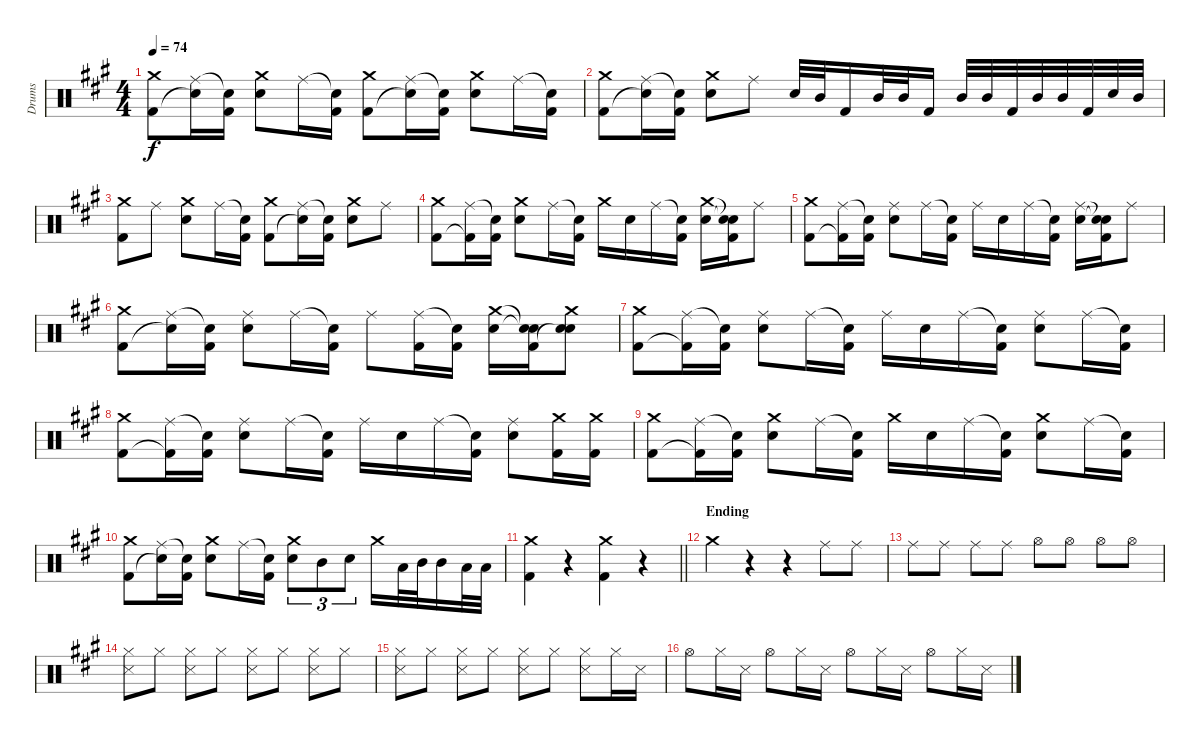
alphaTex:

\track ("Drums" "Drums") {instrument percussion}
\staff {score}
\articulation defaults
\ts (4 4)
\tempo 74
\clef neutral
\ks a
("Crash medium (hit)" "Kick (hit) 2").8{dy f} ("Ride (middle)" "Snare (hit)"{t}).16 ("Snare (hit)"{t} "Kick (hit) 2").16 ("Crash medium (hit)" "Electric Snare (hit)").8 "Ride (middle)".16 ("Snare (hit)"{t} "Kick (hit) 2").16 ("Crash medium (hit)" "Kick (hit) 2").8 ("Ride (middle)" "Snare (hit)"{t}).16 ("Snare (hit)"{t} "Kick (hit) 2").16 ("Crash medium (hit)" "Electric Snare (hit)").8 "Ride (middle)".16 ("Snare (hit)"{t} "Kick (hit) 2").16 |
("Crash medium (hit)" "Kick (hit) 2").8 ("Ride (middle)" "Snare (hit)"{t}).16 ("Snare (hit)"{t} "Kick (hit) 2").16 ("Crash medium (hit)" "Electric Snare (hit)").8 "Ride (middle)".8 "Electric Snare (hit)".32 "Mid Tom (hit)".32 "Kick (hit) 2".16 "Mid Tom (hit)".32 "Mid Tom (hit)".32 "Kick (hit) 2".16 "Mid Tom (hit)".32 "Mid Tom (hit)".32 "Kick (hit) 2".32 "Mid Tom (hit)".32 "Mid Tom (hit)".32 "Kick (hit) 2".32 "Electric Snare (hit)".32 "Mid Tom (hit)".32 |
("Crash medium (hit)" "Kick (hit) 2").8 "Ride (middle)".8 ("Crash medium (hit)" "Electric Snare (hit)").8 "Ride (middle)".16 ("Snare (hit)"{t} "Kick (hit) 2").16 ("Crash medium (hit)" "Kick (hit) 2").8 ("Ride (middle)" "Snare (hit)"{t}).16 ("Snare (hit)"{t} "Kick (hit) 2").16 ("Crash medium (hit)" "Electric Snare (hit)").8 "Ride (middle)".8 |
("Crash medium (hit)" "Kick (hit) 2").8 ("Ride (middle)" "Kick (hit) 2"{t}).16 ("Snare (hit)"{t} "Kick (hit) 2").16 ("Crash medium (hit)" "Electric Snare (hit)").8 "Ride (middle)".16 ("Snare (hit)"{t} "Kick (hit) 2").16 "Crash medium (hit)".16 "Electric Snare (hit)".16 "Ride (middle)".16 ("Snare (hit)"{t} "Kick (hit) 2").16 ("Crash medium (hit)" "Electric Snare (hit)").16 ("Snare (hit)"{t} "Snare (hit)"{t} "Kick (hit) 2").16 "Ride (middle)".8 |
("Crash medium (hit)" "Kick (hit) 2").8 ("Ride (middle)" "Kick (hit) 2"{t}).16 ("Snare (hit)"{t} "Kick (hit) 2").16 ("Ride (middle)" "Electric Snare (hit)").8 "Ride (middle)".16 ("Snare (hit)"{t} "Kick (hit) 2").16 "Ride (middle)".16 "Electric Snare (hit)".16 "Ride (middle)".16 ("Snare (hit)"{t} "Kick (hit) 2").16 ("Ride (middle)" "Electric Snare (hit)").16 ("Snare (hit)"{t} "Snare (hit)"{t} "Kick (hit) 2").16 "Ride (middle)".8 |
("Crash medium (hit)" "Kick (hit) 2").8 ("Ride (middle)" "Snare (hit)"{t}).16 ("Snare (hit)"{t} "Kick (hit) 2").16 ("Ride (middle)" "Electric Snare (hit)").8 "Ride (middle)".16 ("Snare (hit)"{t} "Kick (hit) 2").16 "Ride (middle)".8 ("Ride (middle)" "Kick (hit) 2").16 ("Snare (hit)"{t} "Kick (hit) 2").16 ("Crash medium (hit)" "Electric Snare (hit)").16 ("Snare (hit)"{t} "Snare (hit)"{t} "Kick (hit) 2").16 ("Crash medium (hit)" "Electric Snare (hit)" "Snare (hit)"{t}).8 |
("Crash medium (hit)" "Kick (hit) 2").8 ("Ride (middle)" "Kick (hit) 2"{t}).16 ("Snare (hit)"{t} "Kick (hit) 2").16 ("Ride (middle)" "Electric Snare (hit)").8 "Ride (middle)".16 ("Snare (hit)"{t} "Kick (hit) 2").16 "Ride (middle)".16 "Electric Snare (hit)".16 "Ride (middle)".16 ("Snare (hit)"{t} "Kick (hit) 2").16 ("Ride (middle)" "Electric Snare (hit)").8 "Ride (middle)".16 ("Snare (hit)"{t} "Kick (hit) 2").16 |
("Crash medium (hit)" "Kick (hit) 2").8 ("Ride (middle)" "Kick (hit) 2"{t}).16 ("Snare (hit)"{t} "Kick (hit) 2").16 ("Ride (middle)" "Electric Snare (hit)").8 "Ride (middle)".16 ("Snare (hit)"{t} "Kick (hit) 2").16 "Ride (middle)".16 "Electric Snare (hit)".16 "Ride (middle)".16 ("Snare (hit)"{t} "Kick (hit) 2").16 ("Ride (middle)" "Electric Snare (hit)").8 ("Crash medium (hit)" "Kick (hit) 2").16 ("Crash medium (hit)" "Kick (hit) 2").16 |
("Crash medium (hit)" "Kick (hit) 2").8 ("Ride (middle)" "Kick (hit) 2"{t}).16 ("Snare (hit)"{t} "Kick (hit) 2").16 ("Crash medium (hit)" "Electric Snare (hit)").8 "Ride (middle)".16 ("Snare (hit)"{t} "Kick (hit) 2").16 "Crash medium (hit)".16 "Electric Snare (hit)".16 "Ride (middle)".16 ("Snare (hit)"{t} "Kick (hit) 2").16 ("Crash medium (hit)" "Electric Snare (hit)").8 "Ride (middle)".16 ("Snare (hit)"{t} "Kick (hit) 2").16 |
("Crash medium (hit)" "Kick (hit) 2").8 ("Ride (middle)" "Snare (hit)"{t}).16 ("Snare (hit)"{t} "Kick (hit) 2").16 ("Crash medium (hit)" "Electric Snare (hit)").8 "Ride (middle)".16 ("Snare (hit)"{t} "Kick (hit) 2").16 ("Crash medium (hit)" "Electric Snare (hit)").8{tu (3 2)} "Mid Tom (hit)".8{tu (3 2)} "Electric Snare (hit)".8{tu (3 2)} "Crash medium (hit)".16 "Low Tom (hit)".32 "Mid Tom (hit)".32 "Mid Tom (hit)".16 "Low Floor Tom (hit)".32 "Low Floor Tom (hit)".32 |
\barLineRight lightlight
("Crash medium (hit)" "Kick (hit) 2").4 r.4 ("Crash medium (hit)" "Kick (hit) 2").4 r.4 |
\section ("" "Ending")
\ks f#minor "Crash medium (hit)".4
r.4 r.4 "Ride (middle)".8 "Ride (middle)".8 |
"Ride (middle)".8 "Ride (middle)".8 "Ride (middle)".8 "Ride (middle)".8 "Hi-Hat (open)".8 "Hi-Hat (open)".8 "Hi-Hat (open)".8 "Hi-Hat (open)".8 |
("Hi-Hat (closed)" "Snare (side stick) 3").8 "Hi-Hat (closed)".8 ("Hi-Hat (closed)" "Snare (side stick) 3").8 "Hi-Hat (closed)".8 ("Hi-Hat (closed)" "Snare (side stick) 3").8 "Hi-Hat (closed)".8 ("Hi-Hat (closed)" "Snare (side stick) 3").8 "Hi-Hat (closed)".8 |
("Hi-Hat (closed)" "Snare (side stick) 3").8 "Hi-Hat (closed)".8 ("Hi-Hat (closed)" "Snare (side stick) 3").8 "Hi-Hat (closed)".8 ("Hi-Hat (closed)" "Snare (side stick) 3").8 "Hi-Hat (closed)".8 ("Hi-Hat (closed)" "Snare (side stick) 3").8 "Hi-Hat (closed)".16 "Snare (side stick) 3".16 |
"Hi-Hat (open)".8 "Hi-Hat (closed)".16 "Snare (side stick) 3".16 "Hi-Hat (open)".8 "Hi-Hat (closed)".16 "Snare (side stick) 3".16 "Hi-Hat (open)".8 "Hi-Hat (closed)".16 "Snare (side stick) 3".16 "Hi-Hat (open)".8 "Hi-Hat (closed)".16 "Snare (side stick) 3".16
